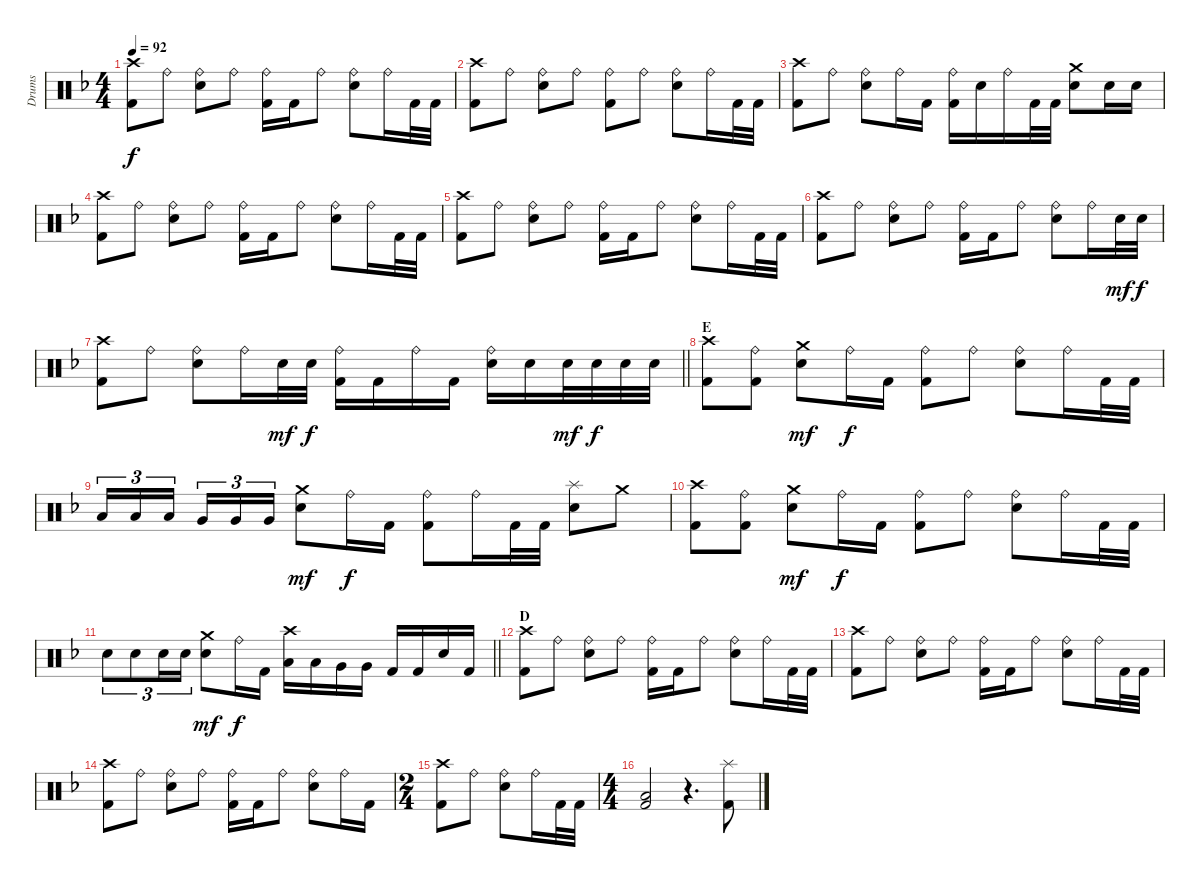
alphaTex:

\track ("Drums" "Drums") {instrument percussion}
\staff {score}
\articulation defaults
\ts (4 4)
\tempo 92
\clef neutral
\ks f
("Crash high (hit)" "Kick (hit) 2").8{dy f} "Ride (bell)".8 ("Ride (bell)" "Snare (hit) 2").8 "Ride (bell)".8 ("Ride (bell)" "Kick (hit) 2").16 "Kick (hit) 2".16 "Ride (bell)".8 ("Ride (bell)" "Snare (hit) 2").8 "Ride (bell)".16 "Kick (hit) 2".32 "Kick (hit) 2".32 |
("Crash high (hit)" "Kick (hit) 2").8 "Ride (bell)".8 ("Ride (bell)" "Snare (hit) 2").8 "Ride (bell)".8 ("Ride (bell)" "Kick (hit) 2").8 "Ride (bell)".8 ("Ride (bell)" "Snare (hit) 2").8 "Ride (bell)".16 "Kick (hit) 2".32 "Kick (hit) 2".32 |
("Crash high (hit)" "Kick (hit) 2").8 "Ride (bell)".8 ("Ride (bell)" "Snare (hit) 2").8 "Ride (bell)".16 "Kick (hit) 2".16 ("Kick (hit) 2" "Ride (bell)").16 "Snare (hit) 2".16 "Ride (bell)".16 "Kick (hit) 2".32 "Kick (hit) 2".32 ("Snare (hit) 2" "Crash medium (hit)").8 "Snare (hit) 2".16 "Snare (hit) 2".16 |
("Crash high (hit)" "Kick (hit) 2").8 "Ride (bell)".8 ("Ride (bell)" "Snare (hit) 2").8 "Ride (bell)".8 ("Ride (bell)" "Kick (hit) 2").16 "Kick (hit) 2".16 "Ride (bell)".8 ("Ride (bell)" "Snare (hit) 2").8 "Ride (bell)".16 "Kick (hit) 2".32 "Kick (hit) 2".32 |
("Crash high (hit)" "Kick (hit) 2").8 "Ride (bell)".8 ("Ride (bell)" "Snare (hit) 2").8 "Ride (bell)".8 ("Ride (bell)" "Kick (hit) 2").16 "Kick (hit) 2".16 "Ride (bell)".8 ("Ride (bell)" "Snare (hit) 2").8 "Ride (bell)".16 "Kick (hit) 2".32 "Kick (hit) 2".32 |
("Crash high (hit)" "Kick (hit) 2").8 "Ride (bell)".8 ("Ride (bell)" "Snare (hit) 2").8 "Ride (bell)".8 ("Ride (bell)" "Kick (hit) 2").16 "Kick (hit) 2".16 "Ride (bell)".8 ("Ride (bell)" "Snare (hit) 2").8 "Ride (bell)".16 "Snare (hit) 2".32{dy mf} "Snare (hit) 2".32{dy f} |
\barLineRight lightlight
("Crash high (hit)" "Kick (hit) 2").8 "Ride (bell)".8 ("Ride (bell)" "Snare (hit) 2").8 "Ride (bell)".16 "Snare (hit) 2".32{dy mf} "Snare (hit) 2".32{dy f} ("Ride (bell)" "Kick (hit) 2").16 "Kick (hit) 2".16 "Ride (bell)".16 "Kick (hit) 2".16 ("Ride (bell)" "Snare (hit) 2").16 "Snare (hit) 2".16 "Snare (hit) 2".32{dy mf} "Snare (hit) 2".32{dy f} "Snare (hit) 2".32 "Snare (hit) 2".32 |
\section ("" "E")
("Crash high (hit)" "Kick (hit) 2").8 ("Ride (bell)" "Kick (hit) 2").8 ("Crash medium (hit)" "Snare (hit) 2").8{dy mf} "Ride (bell)".16{dy f} "Kick (hit) 2".16 ("Ride (bell)" "Kick (hit) 2").8 "Ride (bell)".8 ("Ride (bell)" "Snare (hit) 2").8 "Ride (bell)".16 "Kick (hit) 2".32 "Kick (hit) 2".32 |
"Low Tom (hit)".16{tu (3 2)} "Low Tom (hit)".16{tu (3 2)} "Low Tom (hit)".16{tu (3 2) beam splitsecondary} "Very Low Tom (hit)".16{tu (3 2)} "Very Low Tom (hit)".16{tu (3 2)} "Very Low Tom (hit)".16{tu (3 2)} ("Crash medium (hit)" "Snare (hit) 2").8{dy mf} "Ride (bell)".16{dy f} "Kick (hit) 2".16 ("Ride (bell)" "Kick (hit) 2").8 "Ride (bell)".16 "Kick (hit) 2".32 "Kick (hit) 2".32 ("Splash (hit)" "Snare (hit) 2").8 "Crash medium (hit)".8 |
("Crash high (hit)" "Kick (hit) 2").8 ("Ride (bell)" "Kick (hit) 2").8 ("Crash medium (hit)" "Snare (hit) 2").8{dy mf} "Ride (bell)".16{dy f} "Kick (hit) 2".16 ("Ride (bell)" "Kick (hit) 2").8 "Ride (bell)".8 ("Ride (bell)" "Snare (hit) 2").8 "Ride (bell)".16 "Kick (hit) 2".32 "Kick (hit) 2".32 |
\barLineRight lightlight "Snare (hit) 2".8{tu (3 2)} "Snare (hit) 2".8{tu (3 2)} "Snare (hit) 2".16{tu (3 2)} "Snare (hit) 2".16{tu (3 2)}
("Crash medium (hit)" "Snare (hit) 2").8{dy mf} "Ride (bell)".16{dy f} "Kick (hit) 2".16 ("Low Tom (hit)" "Crash high (hit)").16 "Low Tom (hit)".16 "Very Low Tom (hit)".16 "Very Low Tom (hit)".16 "Kick (hit) 2".16 "Kick (hit) 2".16 "Snare (hit) 2".16 "Kick (hit) 2".16 |
\section ("" "D")
("Crash high (hit)" "Kick (hit) 2").8 "Ride (bell)".8 ("Ride (bell)" "Snare (hit) 2").8 "Ride (bell)".8 ("Ride (bell)" "Kick (hit) 2").16 "Kick (hit) 2".16 "Ride (bell)".8 ("Ride (bell)" "Snare (hit) 2").8 "Ride (bell)".16 "Kick (hit) 2".32 "Kick (hit) 2".32 |
("Crash high (hit)" "Kick (hit) 2").8 "Ride (bell)".8 ("Ride (bell)" "Snare (hit) 2").8 "Ride (bell)".8 ("Ride (bell)" "Kick (hit) 2").16 "Kick (hit) 2".16 "Ride (bell)".8 ("Ride (bell)" "Snare (hit) 2").8 "Ride (bell)".16 "Kick (hit) 2".32 "Kick (hit) 2".32 |
("Crash high (hit)" "Kick (hit) 2").8 "Ride (bell)".8 ("Ride (bell)" "Snare (hit) 2").8 "Ride (bell)".8 ("Ride (bell)" "Kick (hit) 2").16 "Kick (hit) 2".16 "Ride (bell)".8 ("Ride (bell)" "Snare (hit) 2").8 "Ride (bell)".16 "Kick (hit) 2".16 |
\ts (2 4)
("Crash high (hit)" "Kick (hit) 2").8 "Ride (bell)".8 ("Ride (bell)" "Snare (hit) 2").8 "Ride (bell)".16 "Kick (hit) 2".32 "Kick (hit) 2".32 |
\ts (4 4)
("Kick (hit) 2" "Low Floor Tom (hit)").2 r.4{d} ("Splash (hit)" "Kick (hit) 2").8
